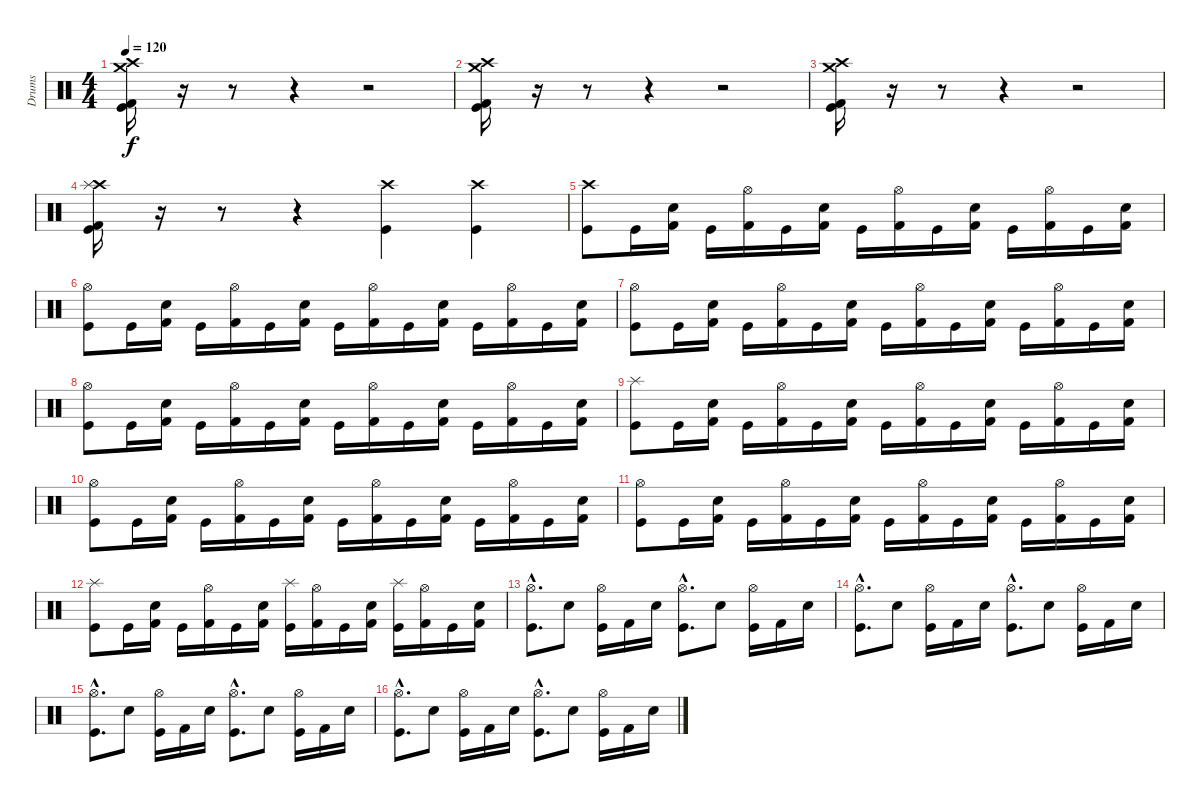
\track ("Drums" "Drums") {instrument percussion}
\staff {score}
\articulation defaults
\ts (4 4)
\tempo 120
\clef neutral
\ks c
("Crash medium (hit)" "Crash high (hit)" "Kick (hit) 2" "Kick (hit)").16{dy f} r.16 r.8 r.4 r.2 |
("Crash medium (hit)" "Crash high (hit)" "Kick (hit) 2" "Kick (hit)").16 r.16 r.8 r.4 r.2 |
("Crash medium (hit)" "Crash high (hit)" "Kick (hit) 2" "Kick (hit)").16 r.16 r.8 r.4 r.2 |
("Crash high (hit)" "Splash (hit)" "Kick (hit) 2" "Kick (hit)").16 r.16 r.8 r.4 ("Crash high (hit)" "Kick (hit)").4 ("Crash high (hit)" "Kick (hit)").4 |
("Crash high (hit)" "Kick (hit)").8 "Kick (hit)".16 ("Snare (hit) 2" "Kick (hit) 2").16 "Kick (hit)".16 ("Hi-Hat (open)" "Kick (hit) 2").16 "Kick (hit)".16 ("Snare (hit) 2" "Kick (hit) 2").16 "Kick (hit)".16 ("Hi-Hat (open)" "Kick (hit) 2").16 "Kick (hit)".16 ("Snare (hit) 2" "Kick (hit) 2").16 "Kick (hit)".16 ("Hi-Hat (open)" "Kick (hit) 2").16 "Kick (hit)".16 ("Snare (hit) 2" "Kick (hit) 2").16 |
("Hi-Hat (open)" "Kick (hit)").8 "Kick (hit)".16 ("Snare (hit) 2" "Kick (hit) 2").16 "Kick (hit)".16 ("Hi-Hat (open)" "Kick (hit) 2").16 "Kick (hit)".16 ("Snare (hit) 2" "Kick (hit) 2").16 "Kick (hit)".16 ("Hi-Hat (open)" "Kick (hit) 2").16 "Kick (hit)".16 ("Snare (hit) 2" "Kick (hit) 2").16 "Kick (hit)".16 ("Hi-Hat (open)" "Kick (hit) 2").16 "Kick (hit)".16 ("Snare (hit) 2" "Kick (hit) 2").16 |
("Hi-Hat (open)" "Kick (hit)").8 "Kick (hit)".16 ("Snare (hit) 2" "Kick (hit) 2").16 "Kick (hit)".16 ("Hi-Hat (open)" "Kick (hit) 2").16 "Kick (hit)".16 ("Snare (hit) 2" "Kick (hit) 2").16 "Kick (hit)".16 ("Hi-Hat (open)" "Kick (hit) 2").16 "Kick (hit)".16 ("Snare (hit) 2" "Kick (hit) 2").16 "Kick (hit)".16 ("Hi-Hat (open)" "Kick (hit) 2").16 "Kick (hit)".16 ("Snare (hit) 2" "Kick (hit) 2").16 |
("Hi-Hat (open)" "Kick (hit)").8 "Kick (hit)".16 ("Snare (hit) 2" "Kick (hit) 2").16 "Kick (hit)".16 ("Hi-Hat (open)" "Kick (hit) 2").16 "Kick (hit)".16 ("Snare (hit) 2" "Kick (hit) 2").16 "Kick (hit)".16 ("Hi-Hat (open)" "Kick (hit) 2").16 "Kick (hit)".16 ("Snare (hit) 2" "Kick (hit) 2").16 "Kick (hit)".16 ("Hi-Hat (open)" "Kick (hit) 2").16 "Kick (hit)".16 ("Snare (hit) 2" "Kick (hit) 2").16 |
("Splash (hit)" "Kick (hit)").8 "Kick (hit)".16 ("Snare (hit) 2" "Kick (hit) 2").16 "Kick (hit)".16 ("Hi-Hat (open)" "Kick (hit) 2").16 "Kick (hit)".16 ("Snare (hit) 2" "Kick (hit) 2").16 "Kick (hit)".16 ("Hi-Hat (open)" "Kick (hit) 2").16 "Kick (hit)".16 ("Snare (hit) 2" "Kick (hit) 2").16 "Kick (hit)".16 ("Hi-Hat (open)" "Kick (hit) 2").16 "Kick (hit)".16 ("Snare (hit) 2" "Kick (hit) 2").16 |
("Hi-Hat (open)" "Kick (hit)").8 "Kick (hit)".16 ("Snare (hit) 2" "Kick (hit) 2").16 "Kick (hit)".16 ("Hi-Hat (open)" "Kick (hit) 2").16 "Kick (hit)".16 ("Snare (hit) 2" "Kick (hit) 2").16 "Kick (hit)".16 ("Hi-Hat (open)" "Kick (hit) 2").16 "Kick (hit)".16 ("Snare (hit) 2" "Kick (hit) 2").16 "Kick (hit)".16 ("Hi-Hat (open)" "Kick (hit) 2").16 "Kick (hit)".16 ("Snare (hit) 2" "Kick (hit) 2").16 |
("Hi-Hat (open)" "Kick (hit)").8 "Kick (hit)".16 ("Snare (hit) 2" "Kick (hit) 2").16 "Kick (hit)".16 ("Hi-Hat (open)" "Kick (hit) 2").16 "Kick (hit)".16 ("Snare (hit) 2" "Kick (hit) 2").16 "Kick (hit)".16 ("Hi-Hat (open)" "Kick (hit) 2").16 "Kick (hit)".16 ("Snare (hit) 2" "Kick (hit) 2").16 "Kick (hit)".16 ("Hi-Hat (open)" "Kick (hit) 2").16 "Kick (hit)".16 ("Snare (hit) 2" "Kick (hit) 2").16 |
("Splash (hit)" "Kick (hit)").8 "Kick (hit)".16 ("Snare (hit) 2" "Kick (hit) 2").16 "Kick (hit)".16 ("Hi-Hat (open)" "Kick (hit) 2").16 "Kick (hit)".16 ("Snare (hit) 2" "Kick (hit) 2").16 ("Splash (hit)" "Kick (hit)").16 ("Hi-Hat (open)" "Kick (hit) 2").16 "Kick (hit)".16 ("Snare (hit) 2" "Kick (hit) 2").16 ("Splash (hit)" "Kick (hit)").16 ("Hi-Hat (open)" "Kick (hit) 2").16 "Kick (hit)".16 ("Snare (hit) 2" "Kick (hit) 2").16 |
("Hi-Hat (open)"{hac} "Kick (hit)"{hac}).8{d} "Snare (hit) 2".8 ("Hi-Hat (open)" "Kick (hit)").16 "Kick (hit) 2".16 "Snare (hit) 2".16 ("Hi-Hat (open)"{hac} "Kick (hit)"{hac}).8{d} "Snare (hit) 2".8 ("Hi-Hat (open)" "Kick (hit)").16 "Kick (hit) 2".16 "Snare (hit) 2".16 |
("Hi-Hat (open)"{hac} "Kick (hit)"{hac}).8{d} "Snare (hit) 2".8 ("Hi-Hat (open)" "Kick (hit)").16 "Kick (hit) 2".16 "Snare (hit) 2".16 ("Hi-Hat (open)"{hac} "Kick (hit)"{hac}).8{d} "Snare (hit) 2".8 ("Hi-Hat (open)" "Kick (hit)").16 "Kick (hit) 2".16 "Snare (hit) 2".16 |
("Hi-Hat (open)"{hac} "Kick (hit)"{hac}).8{d} "Snare (hit) 2".8 ("Hi-Hat (open)" "Kick (hit)").16 "Kick (hit) 2".16 "Snare (hit) 2".16 ("Hi-Hat (open)"{hac} "Kick (hit)"{hac}).8{d} "Snare (hit) 2".8 ("Hi-Hat (open)" "Kick (hit)").16 "Kick (hit) 2".16 "Snare (hit) 2".16 |
("Hi-Hat (open)"{hac} "Kick (hit)"{hac}).8{d} "Snare (hit) 2".8 ("Hi-Hat (open)" "Kick (hit)").16 "Kick (hit) 2".16 "Snare (hit) 2".16 ("Hi-Hat (open)"{hac} "Kick (hit)"{hac}).8{d} "Snare (hit) 2".8 ("Hi-Hat (open)" "Kick (hit)").16 "Kick (hit) 2".16 "Snare (hit) 2".16
